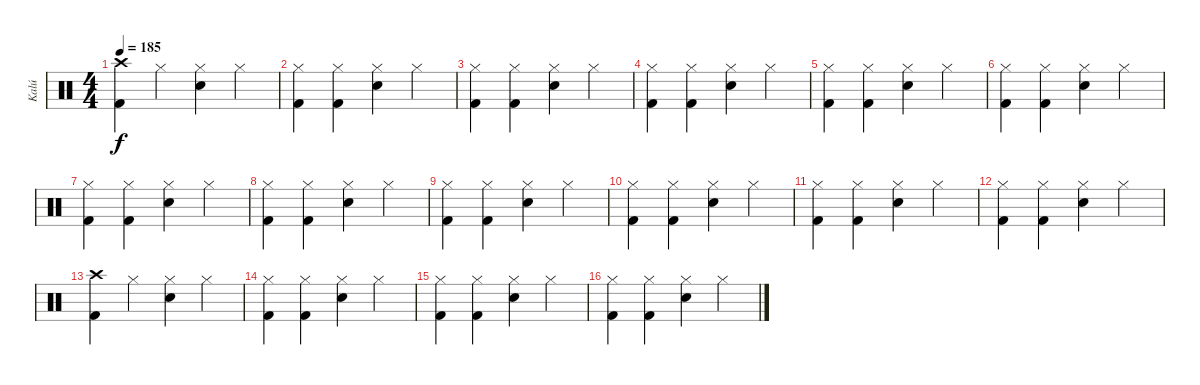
\track ("Kalú" "Kalú") {instrument percussion}
\staff {score}
\articulation defaults
\ts (4 4)
\tempo 185
\clef neutral
\ks c
("Crash high (hit)" "Kick (hit) 2").4{dy f} "Hi-Hat (closed)".4 ("Hi-Hat (closed)" "Snare (hit) 2").4 "Hi-Hat (closed)".4 |
("Hi-Hat (closed)" "Kick (hit) 2").4 ("Hi-Hat (closed)" "Kick (hit) 2").4 ("Hi-Hat (closed)" "Snare (hit) 2").4 "Hi-Hat (closed)".4 |
("Hi-Hat (closed)" "Kick (hit) 2").4 ("Hi-Hat (closed)" "Kick (hit) 2").4 ("Hi-Hat (closed)" "Snare (hit) 2").4 "Hi-Hat (closed)".4 |
("Hi-Hat (closed)" "Kick (hit) 2").4 ("Hi-Hat (closed)" "Kick (hit) 2").4 ("Hi-Hat (closed)" "Snare (hit) 2").4 "Hi-Hat (closed)".4 |
("Hi-Hat (closed)" "Kick (hit) 2").4 ("Hi-Hat (closed)" "Kick (hit) 2").4 ("Hi-Hat (closed)" "Snare (hit) 2").4 "Hi-Hat (closed)".4 |
("Hi-Hat (closed)" "Kick (hit) 2").4 ("Hi-Hat (closed)" "Kick (hit) 2").4 ("Hi-Hat (closed)" "Snare (hit) 2").4 "Hi-Hat (closed)".4 |
("Hi-Hat (closed)" "Kick (hit) 2").4 ("Hi-Hat (closed)" "Kick (hit) 2").4 ("Hi-Hat (closed)" "Snare (hit) 2").4 "Hi-Hat (closed)".4 |
("Hi-Hat (closed)" "Kick (hit) 2").4 ("Hi-Hat (closed)" "Kick (hit) 2").4 ("Hi-Hat (closed)" "Snare (hit) 2").4 "Hi-Hat (closed)".4 |
("Hi-Hat (closed)" "Kick (hit) 2").4 ("Hi-Hat (closed)" "Kick (hit) 2").4 ("Hi-Hat (closed)" "Snare (hit) 2").4 "Hi-Hat (closed)".4 |
("Hi-Hat (closed)" "Kick (hit) 2").4 ("Hi-Hat (closed)" "Kick (hit) 2").4 ("Hi-Hat (closed)" "Snare (hit) 2").4 "Hi-Hat (closed)".4 |
("Hi-Hat (closed)" "Kick (hit) 2").4 ("Hi-Hat (closed)" "Kick (hit) 2").4 ("Hi-Hat (closed)" "Snare (hit) 2").4 "Hi-Hat (closed)".4 |
("Hi-Hat (closed)" "Kick (hit) 2").4 ("Hi-Hat (closed)" "Kick (hit) 2").4 ("Hi-Hat (closed)" "Snare (hit) 2").4 "Hi-Hat (closed)".4 |
("Crash high (hit)" "Kick (hit) 2").4 "Hi-Hat (closed)".4 ("Hi-Hat (closed)" "Snare (hit) 2").4 "Hi-Hat (closed)".4 |
("Hi-Hat (closed)" "Kick (hit) 2").4 ("Hi-Hat (closed)" "Kick (hit) 2").4 ("Hi-Hat (closed)" "Snare (hit) 2").4 "Hi-Hat (closed)".4 |
("Hi-Hat (closed)" "Kick (hit) 2").4 ("Hi-Hat (closed)" "Kick (hit) 2").4 ("Hi-Hat (closed)" "Snare (hit) 2").4 "Hi-Hat (closed)".4 |
("Hi-Hat (closed)" "Kick (hit) 2").4 ("Hi-Hat (closed)" "Kick (hit) 2").4 ("Hi-Hat (closed)" "Snare (hit) 2").4 "Hi-Hat (closed)".4
